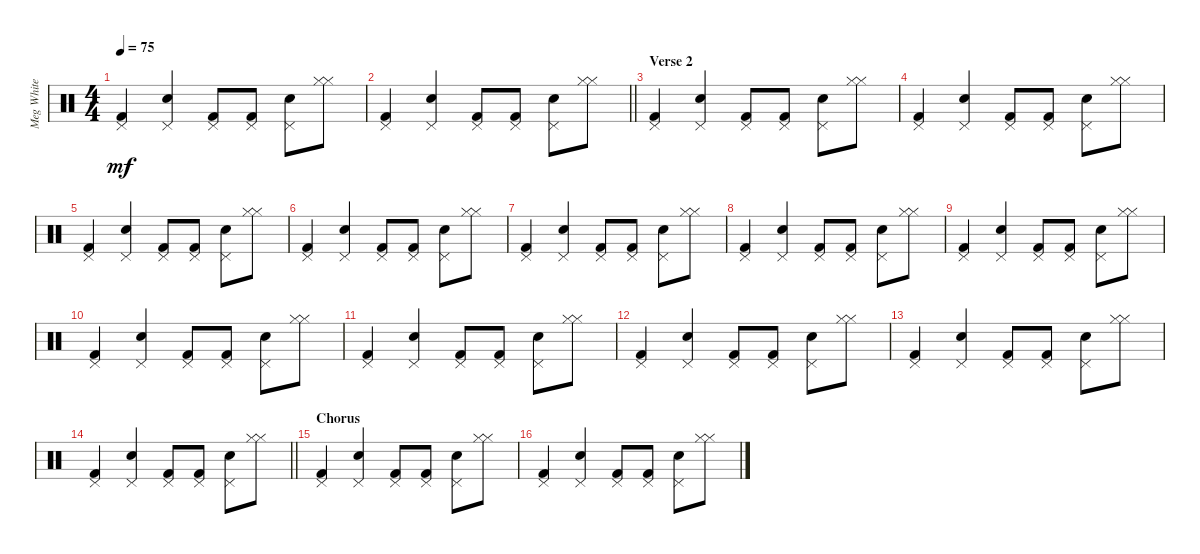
\track ("Meg White" "Meg White") {instrument percussion}
\staff {score}
\articulation defaults
\ts (4 4)
\tempo 75
\clef neutral
\ks c
("Pedal Hi-Hat (hit)" "Kick (hit) 2").4{dy mf} ("Pedal Hi-Hat (hit)" "Electric Snare (hit)").4 ("Pedal Hi-Hat (hit)" "Kick (hit) 2").8 ("Pedal Hi-Hat (hit)" "Kick (hit) 2").8 ("Pedal Hi-Hat (hit)" "Electric Snare (hit)").8 ("Hi-Hat (closed)" "Hi-Hat (closed)").8 |
\barLineRight lightlight
("Pedal Hi-Hat (hit)" "Kick (hit) 2").4 ("Pedal Hi-Hat (hit)" "Electric Snare (hit)").4 ("Pedal Hi-Hat (hit)" "Kick (hit) 2").8 ("Pedal Hi-Hat (hit)" "Kick (hit) 2").8 ("Pedal Hi-Hat (hit)" "Electric Snare (hit)").8 ("Hi-Hat (closed)" "Hi-Hat (closed)").8 |
\section ("" "Verse 2")
("Pedal Hi-Hat (hit)" "Kick (hit) 2").4 ("Pedal Hi-Hat (hit)" "Electric Snare (hit)").4 ("Pedal Hi-Hat (hit)" "Kick (hit) 2").8 ("Pedal Hi-Hat (hit)" "Kick (hit) 2").8 ("Pedal Hi-Hat (hit)" "Electric Snare (hit)").8 ("Hi-Hat (closed)" "Hi-Hat (closed)").8 |
("Pedal Hi-Hat (hit)" "Kick (hit) 2").4 ("Pedal Hi-Hat (hit)" "Electric Snare (hit)").4 ("Pedal Hi-Hat (hit)" "Kick (hit) 2").8 ("Pedal Hi-Hat (hit)" "Kick (hit) 2").8 ("Pedal Hi-Hat (hit)" "Electric Snare (hit)").8 ("Hi-Hat (closed)" "Hi-Hat (closed)").8 |
("Pedal Hi-Hat (hit)" "Kick (hit) 2").4 ("Pedal Hi-Hat (hit)" "Electric Snare (hit)").4 ("Pedal Hi-Hat (hit)" "Kick (hit) 2").8 ("Pedal Hi-Hat (hit)" "Kick (hit) 2").8 ("Pedal Hi-Hat (hit)" "Electric Snare (hit)").8 ("Hi-Hat (closed)" "Hi-Hat (closed)").8 |
("Pedal Hi-Hat (hit)" "Kick (hit) 2").4 ("Pedal Hi-Hat (hit)" "Electric Snare (hit)").4 ("Pedal Hi-Hat (hit)" "Kick (hit) 2").8 ("Pedal Hi-Hat (hit)" "Kick (hit) 2").8 ("Pedal Hi-Hat (hit)" "Electric Snare (hit)").8 ("Hi-Hat (closed)" "Hi-Hat (closed)").8 |
("Pedal Hi-Hat (hit)" "Kick (hit) 2").4 ("Pedal Hi-Hat (hit)" "Electric Snare (hit)").4 ("Pedal Hi-Hat (hit)" "Kick (hit) 2").8 ("Pedal Hi-Hat (hit)" "Kick (hit) 2").8 ("Pedal Hi-Hat (hit)" "Electric Snare (hit)").8 ("Hi-Hat (closed)" "Hi-Hat (closed)").8 |
("Pedal Hi-Hat (hit)" "Kick (hit) 2").4 ("Pedal Hi-Hat (hit)" "Electric Snare (hit)").4 ("Pedal Hi-Hat (hit)" "Kick (hit) 2").8 ("Pedal Hi-Hat (hit)" "Kick (hit) 2").8 ("Pedal Hi-Hat (hit)" "Electric Snare (hit)").8 ("Hi-Hat (closed)" "Hi-Hat (closed)").8 |
("Pedal Hi-Hat (hit)" "Kick (hit) 2").4 ("Pedal Hi-Hat (hit)" "Electric Snare (hit)").4 ("Pedal Hi-Hat (hit)" "Kick (hit) 2").8 ("Pedal Hi-Hat (hit)" "Kick (hit) 2").8 ("Pedal Hi-Hat (hit)" "Electric Snare (hit)").8 ("Hi-Hat (closed)" "Hi-Hat (closed)").8 |
("Pedal Hi-Hat (hit)" "Kick (hit) 2").4 ("Pedal Hi-Hat (hit)" "Electric Snare (hit)").4 ("Pedal Hi-Hat (hit)" "Kick (hit) 2").8 ("Pedal Hi-Hat (hit)" "Kick (hit) 2").8 ("Pedal Hi-Hat (hit)" "Electric Snare (hit)").8 ("Hi-Hat (closed)" "Hi-Hat (closed)").8 |
("Pedal Hi-Hat (hit)" "Kick (hit) 2").4 ("Pedal Hi-Hat (hit)" "Electric Snare (hit)").4 ("Pedal Hi-Hat (hit)" "Kick (hit) 2").8 ("Pedal Hi-Hat (hit)" "Kick (hit) 2").8 ("Pedal Hi-Hat (hit)" "Electric Snare (hit)").8 ("Hi-Hat (closed)" "Hi-Hat (closed)").8 |
("Pedal Hi-Hat (hit)" "Kick (hit) 2").4 ("Pedal Hi-Hat (hit)" "Electric Snare (hit)").4 ("Pedal Hi-Hat (hit)" "Kick (hit) 2").8 ("Pedal Hi-Hat (hit)" "Kick (hit) 2").8 ("Pedal Hi-Hat (hit)" "Electric Snare (hit)").8 ("Hi-Hat (closed)" "Hi-Hat (closed)").8 |
("Pedal Hi-Hat (hit)" "Kick (hit) 2").4 ("Pedal Hi-Hat (hit)" "Electric Snare (hit)").4 ("Pedal Hi-Hat (hit)" "Kick (hit) 2").8 ("Pedal Hi-Hat (hit)" "Kick (hit) 2").8 ("Pedal Hi-Hat (hit)" "Electric Snare (hit)").8 ("Hi-Hat (closed)" "Hi-Hat (closed)").8 |
\barLineRight lightlight
("Pedal Hi-Hat (hit)" "Kick (hit) 2").4 ("Pedal Hi-Hat (hit)" "Electric Snare (hit)").4 ("Pedal Hi-Hat (hit)" "Kick (hit) 2").8 ("Pedal Hi-Hat (hit)" "Kick (hit) 2").8 ("Pedal Hi-Hat (hit)" "Electric Snare (hit)").8 ("Hi-Hat (closed)" "Hi-Hat (closed)").8 |
\section ("" "Chorus")
("Pedal Hi-Hat (hit)" "Kick (hit) 2").4 ("Pedal Hi-Hat (hit)" "Electric Snare (hit)").4 ("Pedal Hi-Hat (hit)" "Kick (hit) 2").8 ("Pedal Hi-Hat (hit)" "Kick (hit) 2").8 ("Pedal Hi-Hat (hit)" "Electric Snare (hit)").8 ("Hi-Hat (closed)" "Hi-Hat (closed)").8 |
("Pedal Hi-Hat (hit)" "Kick (hit) 2").4 ("Pedal Hi-Hat (hit)" "Electric Snare (hit)").4 ("Pedal Hi-Hat (hit)" "Kick (hit) 2").8 ("Pedal Hi-Hat (hit)" "Kick (hit) 2").8 ("Pedal Hi-Hat (hit)" "Electric Snare (hit)").8 ("Hi-Hat (closed)" "Hi-Hat (closed)").8
